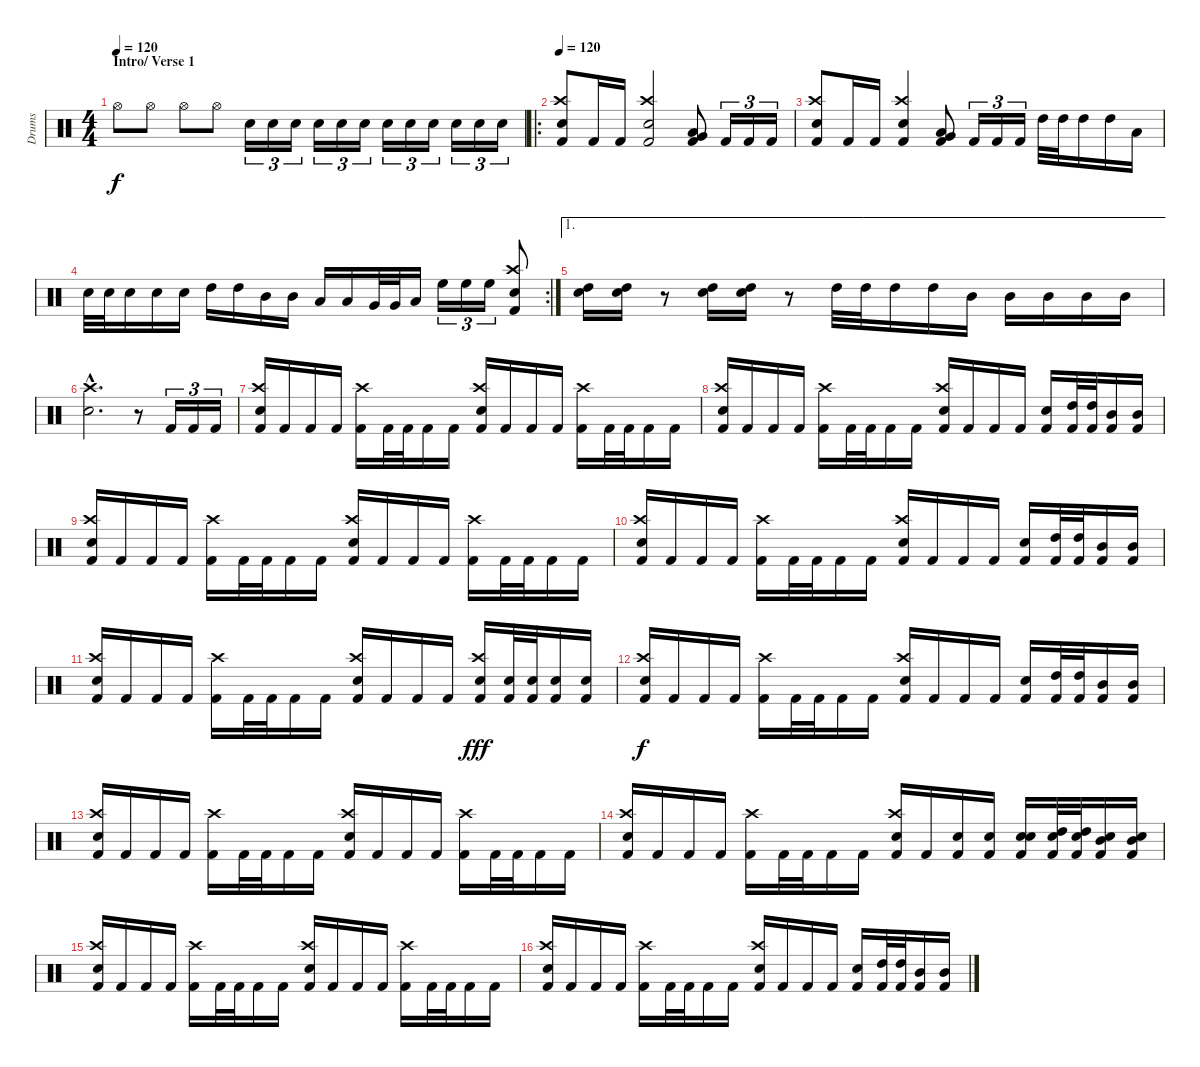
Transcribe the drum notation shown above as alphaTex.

\track ("Drums" "Drums") {instrument percussion}
\staff {score}
\articulation defaults
\ts (4 4)
\section ("" "Intro/ Verse 1")
\tempo 120
\tempo 140
\tempo 120
\clef neutral
\ks c "Hi-Hat (open)".8{dy f} "Hi-Hat (open)".8 "Hi-Hat (open)".8 "Hi-Hat (open)".8 "Electric Snare (hit)".16{tu (3 2)} "Electric Snare (hit)".16{tu (3 2)} "Electric Snare (hit)".16{tu (3 2)} "Electric Snare (hit)".16{tu (3 2)} "Electric Snare (hit)".16{tu (3 2)} "Electric Snare (hit)".16{tu (3 2)} "Electric Snare (hit)".16{tu (3 2)} "Electric Snare (hit)".16{tu (3 2)} "Electric Snare (hit)".16{tu (3 2)} "Electric Snare (hit)".16{tu (3 2)} "Electric Snare (hit)".16{tu (3 2)} "Electric Snare (hit)".16{tu (3 2)}
|
\ro
\tempo 120
("Crash high (hit)" "Kick (hit) 2" "Electric Snare (hit)").8 "Kick (hit) 2".16 "Kick (hit) 2".16 ("Crash high (hit)" "Kick (hit) 2" "Electric Snare (hit)").2 ("Very Low Tom (hit)" "Low Floor Tom (hit)" "Kick (hit) 2").8 "Kick (hit) 2".16{tu (3 2)} "Kick (hit) 2".16{tu (3 2)} "Kick (hit) 2".16{tu (3 2)} |
("Crash high (hit)" "Kick (hit) 2" "Electric Snare (hit)").8 "Kick (hit) 2".16 "Kick (hit) 2".16 ("Crash high (hit)" "Kick (hit) 2" "Electric Snare (hit)").4 ("Very Low Tom (hit)" "Low Floor Tom (hit)" "Kick (hit) 2").8 "Kick (hit) 2".16{tu (3 2)} "Kick (hit) 2".16{tu (3 2)} "Kick (hit) 2".16{tu (3 2)} "High Tom (hit)".32 "High Tom (hit)".32 "High Tom (hit)".16 "High Tom (hit)".16 "Low Tom (hit)".16 |
\rc 2 "Electric Snare (hit)".32 "Electric Snare (hit)".32 "Electric Snare (hit)".16 "Electric Snare (hit)".16 "Electric Snare (hit)".16 "High Tom (hit)".16 "High Tom (hit)".16 "Mid Tom (hit)".16 "Mid Tom (hit)".16 "Low Tom (hit)".16 "Low Tom (hit)".16 "Very Low Tom (hit)".32 "Very Low Tom (hit)".32 "Low Floor Tom (hit)".16 "High Floor Tom (hit)".16{tu (3 2)} "High Floor Tom (hit)".16{tu (3 2)} "High Floor Tom (hit)".16{tu (3 2)}
("Kick (hit) 2" "Crash high (hit)" "Electric Snare (hit)").8 |
\ae 1
("Electric Snare (hit)" "High Tom (hit)").16 ("Electric Snare (hit)" "High Tom (hit)").16 r.8 ("Electric Snare (hit)" "High Tom (hit)").16 ("Electric Snare (hit)" "High Tom (hit)").16 r.8 "High Tom (hit)".32 "High Tom (hit)".32 "High Tom (hit)".16 "High Tom (hit)".16 "Mid Tom (hit)".16 "Mid Tom (hit)".16 "Mid Tom (hit)".16 "Mid Tom (hit)".16 "Mid Tom (hit)".16 |
("Electric Snare (hit)"{hac} "Crash high (hit)"{hac}).2{d} r.8 "Kick (hit) 2".16{tu (3 2)} "Kick (hit) 2".16{tu (3 2)} "Kick (hit) 2".16{tu (3 2)} |
("Kick (hit) 2" "Crash high (hit)" "Electric Snare (hit)").16 "Kick (hit) 2".16 "Kick (hit) 2".16 "Kick (hit) 2".16 ("Kick (hit) 2" "Crash high (hit)").16 "Kick (hit) 2".32 "Kick (hit) 2".32 "Kick (hit) 2".16 "Kick (hit) 2".16 ("Kick (hit) 2" "Crash high (hit)" "Electric Snare (hit)").16 "Kick (hit) 2".16 "Kick (hit) 2".16 "Kick (hit) 2".16 ("Kick (hit) 2" "Crash high (hit)").16 "Kick (hit) 2".32 "Kick (hit) 2".32 "Kick (hit) 2".16 "Kick (hit) 2".16 |
("Kick (hit) 2" "Crash high (hit)" "Electric Snare (hit)").16 "Kick (hit) 2".16 "Kick (hit) 2".16 "Kick (hit) 2".16 ("Kick (hit) 2" "Crash high (hit)").16 "Kick (hit) 2".32 "Kick (hit) 2".32 "Kick (hit) 2".16 "Kick (hit) 2".16 ("Kick (hit) 2" "Crash high (hit)" "Electric Snare (hit)").16 "Kick (hit) 2".16 "Kick (hit) 2".16 "Kick (hit) 2".16 ("Kick (hit) 2" "Electric Snare (hit)").16 ("Kick (hit) 2" "High Tom (hit)").32 ("Kick (hit) 2" "High Tom (hit)").32 ("Kick (hit) 2" "Mid Tom (hit)").16 ("Kick (hit) 2" "Mid Tom (hit)").16 |
("Kick (hit) 2" "Crash high (hit)" "Electric Snare (hit)").16 "Kick (hit) 2".16 "Kick (hit) 2".16 "Kick (hit) 2".16 ("Kick (hit) 2" "Crash high (hit)").16 "Kick (hit) 2".32 "Kick (hit) 2".32 "Kick (hit) 2".16 "Kick (hit) 2".16 ("Kick (hit) 2" "Crash high (hit)" "Electric Snare (hit)").16 "Kick (hit) 2".16 "Kick (hit) 2".16 "Kick (hit) 2".16 ("Kick (hit) 2" "Crash high (hit)").16 "Kick (hit) 2".32 "Kick (hit) 2".32 "Kick (hit) 2".16 "Kick (hit) 2".16 |
("Kick (hit) 2" "Crash high (hit)" "Electric Snare (hit)").16 "Kick (hit) 2".16 "Kick (hit) 2".16 "Kick (hit) 2".16 ("Kick (hit) 2" "Crash high (hit)").16 "Kick (hit) 2".32 "Kick (hit) 2".32 "Kick (hit) 2".16 "Kick (hit) 2".16 ("Kick (hit) 2" "Crash high (hit)" "Electric Snare (hit)").16 "Kick (hit) 2".16 "Kick (hit) 2".16 "Kick (hit) 2".16 ("Kick (hit) 2" "Electric Snare (hit)").16 ("Kick (hit) 2" "High Tom (hit)").32 ("Kick (hit) 2" "High Tom (hit)").32 ("Kick (hit) 2" "Mid Tom (hit)").16 ("Kick (hit) 2" "Mid Tom (hit)").16 |
("Kick (hit) 2" "Crash high (hit)" "Electric Snare (hit)").16 "Kick (hit) 2".16 "Kick (hit) 2".16 "Kick (hit) 2".16 ("Kick (hit) 2" "Crash high (hit)").16 "Kick (hit) 2".32 "Kick (hit) 2".32 "Kick (hit) 2".16 "Kick (hit) 2".16 ("Kick (hit) 2" "Crash high (hit)" "Electric Snare (hit)").16 "Kick (hit) 2".16 "Kick (hit) 2".16 "Kick (hit) 2".16 ("Kick (hit) 2" "Crash high (hit)" "Electric Snare (hit)").16{dy fff} ("Kick (hit) 2" "Electric Snare (hit)").32 ("Kick (hit) 2" "Electric Snare (hit)").32 ("Kick (hit) 2" "Electric Snare (hit)").16 ("Kick (hit) 2" "Electric Snare (hit)").16 |
("Kick (hit) 2" "Crash high (hit)" "Electric Snare (hit)").16{dy f} "Kick (hit) 2".16 "Kick (hit) 2".16 "Kick (hit) 2".16 ("Kick (hit) 2" "Crash high (hit)").16 "Kick (hit) 2".32 "Kick (hit) 2".32 "Kick (hit) 2".16 "Kick (hit) 2".16 ("Kick (hit) 2" "Crash high (hit)" "Electric Snare (hit)").16 "Kick (hit) 2".16 "Kick (hit) 2".16 "Kick (hit) 2".16 ("Kick (hit) 2" "Electric Snare (hit)").16 ("Kick (hit) 2" "High Tom (hit)").32 ("Kick (hit) 2" "High Tom (hit)").32 ("Kick (hit) 2" "Mid Tom (hit)").16 ("Kick (hit) 2" "Mid Tom (hit)").16 |
("Kick (hit) 2" "Crash high (hit)" "Electric Snare (hit)").16 "Kick (hit) 2".16 "Kick (hit) 2".16 "Kick (hit) 2".16 ("Kick (hit) 2" "Crash high (hit)").16 "Kick (hit) 2".32 "Kick (hit) 2".32 "Kick (hit) 2".16 "Kick (hit) 2".16 ("Kick (hit) 2" "Crash high (hit)" "Electric Snare (hit)").16 "Kick (hit) 2".16 "Kick (hit) 2".16 "Kick (hit) 2".16 ("Kick (hit) 2" "Crash high (hit)").16 "Kick (hit) 2".32 "Kick (hit) 2".32 "Kick (hit) 2".16 "Kick (hit) 2".16 |
("Kick (hit) 2" "Crash high (hit)" "Electric Snare (hit)").16 "Kick (hit) 2".16 "Kick (hit) 2".16 "Kick (hit) 2".16 ("Kick (hit) 2" "Crash high (hit)").16 "Kick (hit) 2".32 "Kick (hit) 2".32 "Kick (hit) 2".16 "Kick (hit) 2".16 ("Kick (hit) 2" "Crash high (hit)" "Electric Snare (hit)").16 "Kick (hit) 2".16 ("Kick (hit) 2" "Electric Snare (hit)").16 ("Kick (hit) 2" "Electric Snare (hit)").16 ("Kick (hit) 2" "Electric Snare (hit)" "Electric Snare (hit)").16 ("Kick (hit) 2" "Electric Snare (hit)" "High Tom (hit)").32 ("Kick (hit) 2" "Electric Snare (hit)" "High Tom (hit)").32 ("Kick (hit) 2" "Electric Snare (hit)" "Mid Tom (hit)").16 ("Kick (hit) 2" "Electric Snare (hit)" "Mid Tom (hit)").16 |
("Kick (hit) 2" "Crash high (hit)" "Electric Snare (hit)").16 "Kick (hit) 2".16 "Kick (hit) 2".16 "Kick (hit) 2".16 ("Kick (hit) 2" "Crash high (hit)").16 "Kick (hit) 2".32 "Kick (hit) 2".32 "Kick (hit) 2".16 "Kick (hit) 2".16 ("Kick (hit) 2" "Crash high (hit)" "Electric Snare (hit)").16 "Kick (hit) 2".16 "Kick (hit) 2".16 "Kick (hit) 2".16 ("Kick (hit) 2" "Crash high (hit)").16 "Kick (hit) 2".32 "Kick (hit) 2".32 "Kick (hit) 2".16 "Kick (hit) 2".16 |
("Kick (hit) 2" "Crash high (hit)" "Electric Snare (hit)").16 "Kick (hit) 2".16 "Kick (hit) 2".16 "Kick (hit) 2".16 ("Kick (hit) 2" "Crash high (hit)").16 "Kick (hit) 2".32 "Kick (hit) 2".32 "Kick (hit) 2".16 "Kick (hit) 2".16 ("Kick (hit) 2" "Crash high (hit)" "Electric Snare (hit)").16 "Kick (hit) 2".16 "Kick (hit) 2".16 "Kick (hit) 2".16 ("Kick (hit) 2" "Electric Snare (hit)").16 ("Kick (hit) 2" "High Tom (hit)").32 ("Kick (hit) 2" "High Tom (hit)").32 ("Kick (hit) 2" "Mid Tom (hit)").16 ("Kick (hit) 2" "Mid Tom (hit)").16
